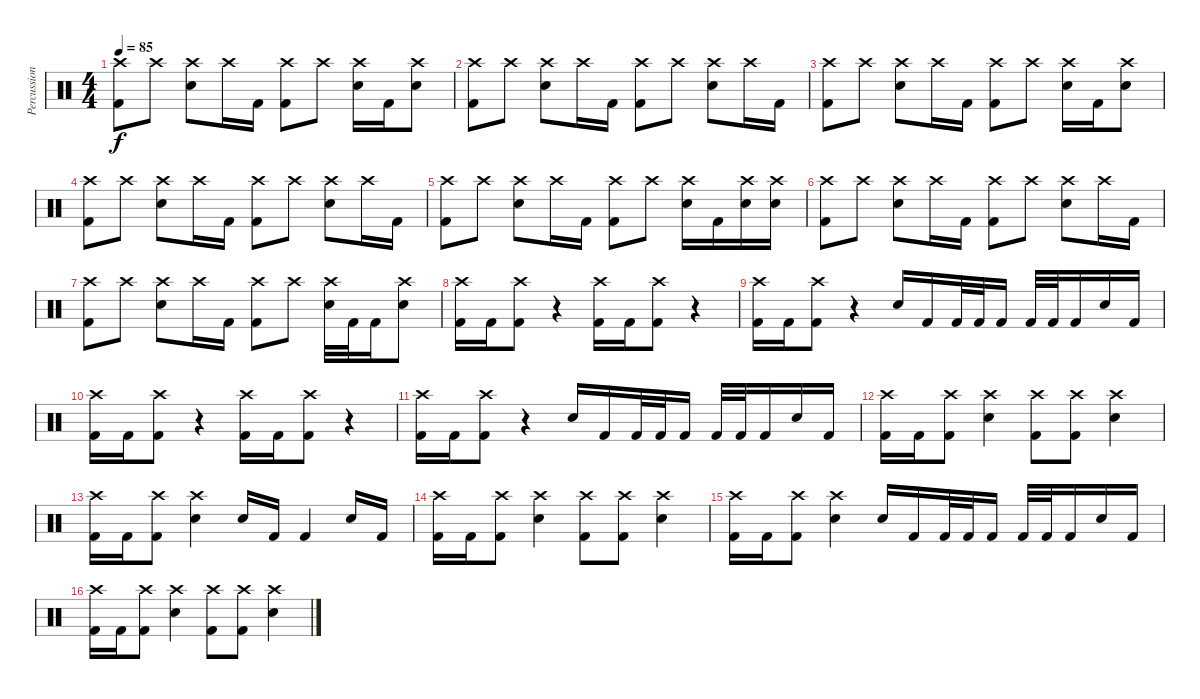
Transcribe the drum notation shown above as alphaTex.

\track ("Percussion" "Percussion") {instrument percussion}
\staff {score}
\articulation defaults
\ts (4 4)
\tempo 85
\clef neutral
\ks c
("Crash high (hit)" "Kick (hit) 2").8{dy f} "Crash high (hit)".8 ("Crash high (hit)" "Electric Snare (hit)").8 "Crash high (hit)".16 "Kick (hit) 2".16 ("Crash high (hit)" "Kick (hit) 2").8 "Crash high (hit)".8 ("Crash high (hit)" "Electric Snare (hit)").16 "Kick (hit) 2".16 ("Crash high (hit)" "Electric Snare (hit)").8 |
("Crash high (hit)" "Kick (hit) 2").8 "Crash high (hit)".8 ("Crash high (hit)" "Electric Snare (hit)").8 "Crash high (hit)".16 "Kick (hit) 2".16 ("Crash high (hit)" "Kick (hit) 2").8 "Crash high (hit)".8 ("Crash high (hit)" "Electric Snare (hit)").8 "Crash high (hit)".16 "Kick (hit) 2".16 |
("Crash high (hit)" "Kick (hit) 2").8 "Crash high (hit)".8 ("Crash high (hit)" "Electric Snare (hit)").8 "Crash high (hit)".16 "Kick (hit) 2".16 ("Crash high (hit)" "Kick (hit) 2").8 "Crash high (hit)".8 ("Crash high (hit)" "Electric Snare (hit)").16 "Kick (hit) 2".16 ("Crash high (hit)" "Electric Snare (hit)").8 |
("Crash high (hit)" "Kick (hit) 2").8 "Crash high (hit)".8 ("Crash high (hit)" "Electric Snare (hit)").8 "Crash high (hit)".16 "Kick (hit) 2".16 ("Crash high (hit)" "Kick (hit) 2").8 "Crash high (hit)".8 ("Crash high (hit)" "Electric Snare (hit)").8 "Crash high (hit)".16 "Kick (hit) 2".16 |
("Crash high (hit)" "Kick (hit) 2").8 "Crash high (hit)".8 ("Crash high (hit)" "Electric Snare (hit)").8 "Crash high (hit)".16 "Kick (hit) 2".16 ("Crash high (hit)" "Kick (hit) 2").8 "Crash high (hit)".8 ("Crash high (hit)" "Electric Snare (hit)").16 "Kick (hit) 2".16 ("Crash high (hit)" "Electric Snare (hit)").16 ("Crash high (hit)" "Electric Snare (hit)").16 |
("Crash high (hit)" "Kick (hit) 2").8 "Crash high (hit)".8 ("Crash high (hit)" "Electric Snare (hit)").8 "Crash high (hit)".16 "Kick (hit) 2".16 ("Crash high (hit)" "Kick (hit) 2").8 "Crash high (hit)".8 ("Crash high (hit)" "Electric Snare (hit)").8 "Crash high (hit)".16 "Kick (hit) 2".16 |
("Crash high (hit)" "Kick (hit) 2").8 "Crash high (hit)".8 ("Crash high (hit)" "Electric Snare (hit)").8 "Crash high (hit)".16 "Kick (hit) 2".16 ("Crash high (hit)" "Kick (hit) 2").8 "Crash high (hit)".8 ("Crash high (hit)" "Electric Snare (hit)").32 "Kick (hit) 2".32 "Kick (hit) 2".16 ("Crash high (hit)" "Electric Snare (hit)").8 |
("Crash high (hit)" "Kick (hit) 2").16 "Kick (hit) 2".16 ("Crash high (hit)" "Kick (hit) 2").8 r.4 ("Crash high (hit)" "Kick (hit) 2").16 "Kick (hit) 2".16 ("Crash high (hit)" "Kick (hit) 2").8 r.4 |
("Crash high (hit)" "Kick (hit) 2").16 "Kick (hit) 2".16 ("Crash high (hit)" "Kick (hit) 2").8 r.4 "Electric Snare (hit)".16 "Kick (hit) 2".16 "Kick (hit) 2".32 "Kick (hit) 2".32 "Kick (hit) 2".16 "Kick (hit) 2".32 "Kick (hit) 2".32 "Kick (hit) 2".16 "Electric Snare (hit)".16 "Kick (hit) 2".16 |
("Crash high (hit)" "Kick (hit) 2").16 "Kick (hit) 2".16 ("Crash high (hit)" "Kick (hit) 2").8 r.4 ("Crash high (hit)" "Kick (hit) 2").16 "Kick (hit) 2".16 ("Crash high (hit)" "Kick (hit) 2").8 r.4 |
("Crash high (hit)" "Kick (hit) 2").16 "Kick (hit) 2".16 ("Crash high (hit)" "Kick (hit) 2").8 r.4 "Electric Snare (hit)".16 "Kick (hit) 2".16 "Kick (hit) 2".32 "Kick (hit) 2".32 "Kick (hit) 2".16 "Kick (hit) 2".32 "Kick (hit) 2".32 "Kick (hit) 2".16 "Electric Snare (hit)".16 "Kick (hit) 2".16 |
("Crash high (hit)" "Kick (hit) 2").16 "Kick (hit) 2".16 ("Crash high (hit)" "Kick (hit) 2").8 ("Crash high (hit)" "Electric Snare (hit)").4 ("Crash high (hit)" "Kick (hit) 2").8 ("Crash high (hit)" "Kick (hit) 2").8 ("Crash high (hit)" "Electric Snare (hit)").4 |
("Crash high (hit)" "Kick (hit) 2").16 "Kick (hit) 2".16 ("Crash high (hit)" "Kick (hit) 2").8 ("Crash high (hit)" "Electric Snare (hit)").4 "Electric Snare (hit)".16 "Kick (hit) 2".16 "Kick (hit) 2".4 "Electric Snare (hit)".16 "Kick (hit) 2".16 |
("Crash high (hit)" "Kick (hit) 2").16 "Kick (hit) 2".16 ("Crash high (hit)" "Kick (hit) 2").8 ("Crash high (hit)" "Electric Snare (hit)").4 ("Crash high (hit)" "Kick (hit) 2").8 ("Crash high (hit)" "Kick (hit) 2").8 ("Crash high (hit)" "Electric Snare (hit)").4 |
("Crash high (hit)" "Kick (hit) 2").16 "Kick (hit) 2".16 ("Crash high (hit)" "Kick (hit) 2").8 ("Crash high (hit)" "Electric Snare (hit)").4 "Electric Snare (hit)".16 "Kick (hit) 2".16 "Kick (hit) 2".32 "Kick (hit) 2".32 "Kick (hit) 2".16 "Kick (hit) 2".32 "Kick (hit) 2".32 "Kick (hit) 2".16 "Electric Snare (hit)".16 "Kick (hit) 2".16 |
("Crash high (hit)" "Kick (hit) 2").16 "Kick (hit) 2".16 ("Crash high (hit)" "Kick (hit) 2").8 ("Crash high (hit)" "Electric Snare (hit)").4 ("Crash high (hit)" "Kick (hit) 2").8 ("Crash high (hit)" "Kick (hit) 2").8 ("Crash high (hit)" "Electric Snare (hit)").4
